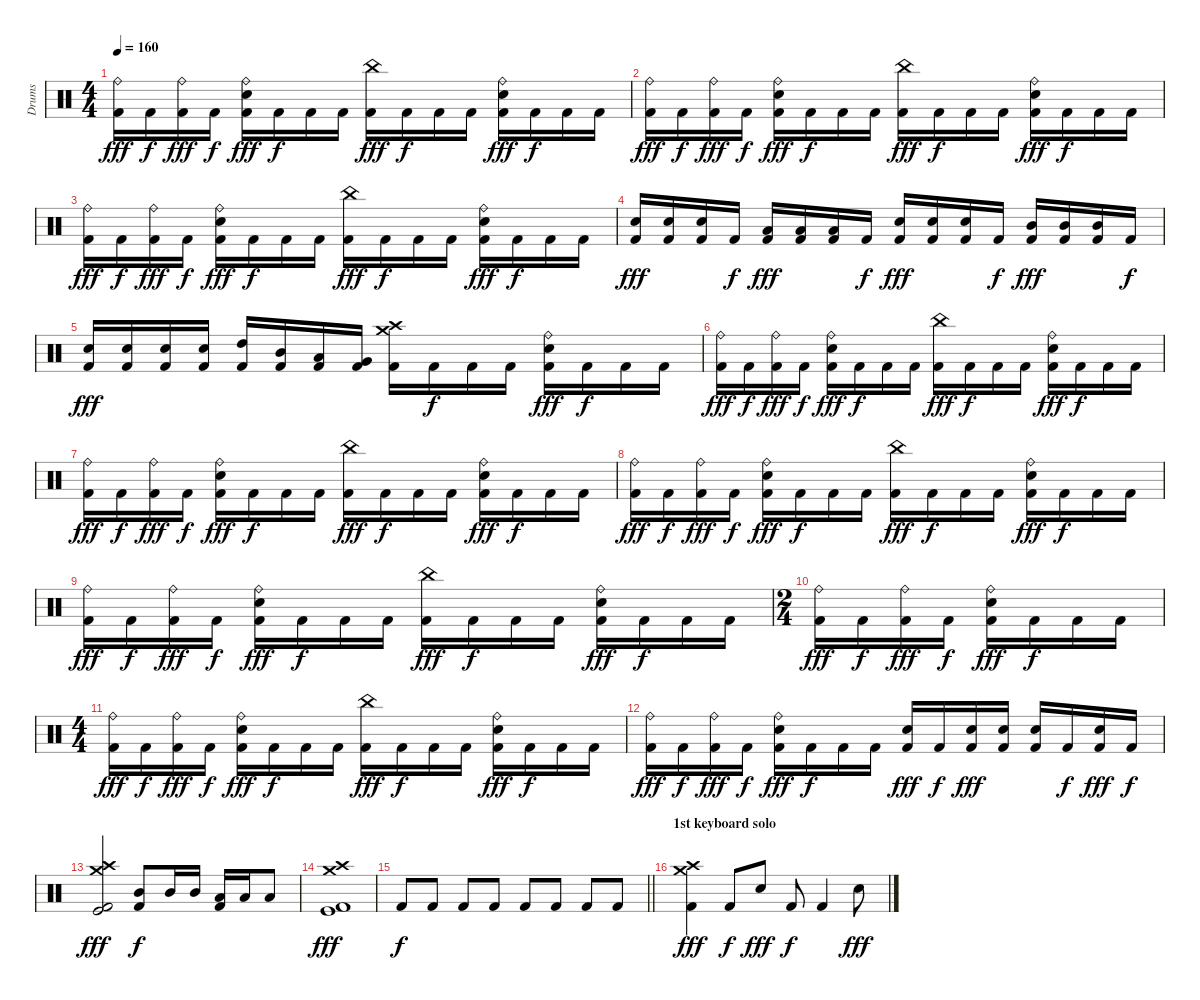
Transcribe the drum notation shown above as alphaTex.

\track ("Drums" "Drums") {instrument percussion}
\staff {score}
\articulation defaults
\ts (4 4)
\tempo 160
\clef neutral
\ks c
("Ride (bell)" "Kick (hit) 2").16{dy fff} "Kick (hit) 2".16{dy f} ("Ride (bell)" "Kick (hit) 2").16{dy fff} "Kick (hit) 2".16{dy f} ("Ride (bell)" "Electric Snare (hit)" "Kick (hit) 2").16{dy fff} "Kick (hit) 2".16{dy f} "Kick (hit) 2".16 "Kick (hit) 2".16 ("China (hit)" "Kick (hit) 2").16{dy fff} "Kick (hit) 2".16{dy f} "Kick (hit) 2".16 "Kick (hit) 2".16 ("Ride (bell)" "Electric Snare (hit)" "Kick (hit) 2").16{dy fff} "Kick (hit) 2".16{dy f} "Kick (hit) 2".16 "Kick (hit) 2".16 |
("Ride (bell)" "Kick (hit) 2").16{dy fff} "Kick (hit) 2".16{dy f} ("Ride (bell)" "Kick (hit) 2").16{dy fff} "Kick (hit) 2".16{dy f} ("Ride (bell)" "Electric Snare (hit)" "Kick (hit) 2").16{dy fff} "Kick (hit) 2".16{dy f} "Kick (hit) 2".16 "Kick (hit) 2".16 ("China (hit)" "Kick (hit) 2").16{dy fff} "Kick (hit) 2".16{dy f} "Kick (hit) 2".16 "Kick (hit) 2".16 ("Ride (bell)" "Electric Snare (hit)" "Kick (hit) 2").16{dy fff} "Kick (hit) 2".16{dy f} "Kick (hit) 2".16 "Kick (hit) 2".16 |
("Ride (bell)" "Kick (hit) 2").16{dy fff} "Kick (hit) 2".16{dy f} ("Ride (bell)" "Kick (hit) 2").16{dy fff} "Kick (hit) 2".16{dy f} ("Ride (bell)" "Electric Snare (hit)" "Kick (hit) 2").16{dy fff} "Kick (hit) 2".16{dy f} "Kick (hit) 2".16 "Kick (hit) 2".16 ("China (hit)" "Kick (hit) 2").16{dy fff} "Kick (hit) 2".16{dy f} "Kick (hit) 2".16 "Kick (hit) 2".16 ("Ride (bell)" "Electric Snare (hit)" "Kick (hit) 2").16{dy fff} "Kick (hit) 2".16{dy f} "Kick (hit) 2".16 "Kick (hit) 2".16 |
("Electric Snare (hit)" "Kick (hit) 2").16{dy fff} ("Electric Snare (hit)" "Kick (hit) 2").16 ("Electric Snare (hit)" "Kick (hit) 2").16 "Kick (hit) 2".16{dy f} ("Low Tom (hit)" "Kick (hit) 2").16{dy fff} ("Low Tom (hit)" "Kick (hit) 2").16 ("Low Tom (hit)" "Kick (hit) 2").16 "Kick (hit) 2".16{dy f} ("Electric Snare (hit)" "Kick (hit) 2").16{dy fff} ("Electric Snare (hit)" "Kick (hit) 2").16 ("Electric Snare (hit)" "Kick (hit) 2").16 "Kick (hit) 2".16{dy f} ("Mid Tom (hit)" "Kick (hit) 2").16{dy fff} ("Mid Tom (hit)" "Kick (hit) 2").16 ("Mid Tom (hit)" "Kick (hit) 2").16 "Kick (hit) 2".16{dy f} |
("Electric Snare (hit)" "Kick (hit) 2").16{dy fff} ("Electric Snare (hit)" "Kick (hit) 2").16 ("Electric Snare (hit)" "Kick (hit) 2").16 ("Electric Snare (hit)" "Kick (hit) 2").16 ("High Tom (hit)" "Kick (hit) 2").16 ("Mid Tom (hit)" "Kick (hit) 2").16 ("Low Tom (hit)" "Kick (hit) 2").16 ("Very Low Tom (hit)" "Kick (hit) 2").16 ("Crash high (hit)" "Crash medium (hit)" "Kick (hit) 2").16 "Kick (hit) 2".16{dy f} "Kick (hit) 2".16 "Kick (hit) 2".16 ("Ride (bell)" "Electric Snare (hit)" "Kick (hit) 2").16{dy fff} "Kick (hit) 2".16{dy f} "Kick (hit) 2".16 "Kick (hit) 2".16 |
("Ride (bell)" "Kick (hit) 2").16{dy fff} "Kick (hit) 2".16{dy f} ("Ride (bell)" "Kick (hit) 2").16{dy fff} "Kick (hit) 2".16{dy f} ("Ride (bell)" "Electric Snare (hit)" "Kick (hit) 2").16{dy fff} "Kick (hit) 2".16{dy f} "Kick (hit) 2".16 "Kick (hit) 2".16 ("China (hit)" "Kick (hit) 2").16{dy fff} "Kick (hit) 2".16{dy f} "Kick (hit) 2".16 "Kick (hit) 2".16 ("Ride (bell)" "Electric Snare (hit)" "Kick (hit) 2").16{dy fff} "Kick (hit) 2".16{dy f} "Kick (hit) 2".16 "Kick (hit) 2".16 |
("Ride (bell)" "Kick (hit) 2").16{dy fff} "Kick (hit) 2".16{dy f} ("Ride (bell)" "Kick (hit) 2").16{dy fff} "Kick (hit) 2".16{dy f} ("Ride (bell)" "Electric Snare (hit)" "Kick (hit) 2").16{dy fff} "Kick (hit) 2".16{dy f} "Kick (hit) 2".16 "Kick (hit) 2".16 ("China (hit)" "Kick (hit) 2").16{dy fff} "Kick (hit) 2".16{dy f} "Kick (hit) 2".16 "Kick (hit) 2".16 ("Ride (bell)" "Electric Snare (hit)" "Kick (hit) 2").16{dy fff} "Kick (hit) 2".16{dy f} "Kick (hit) 2".16 "Kick (hit) 2".16 |
("Ride (bell)" "Kick (hit) 2").16{dy fff} "Kick (hit) 2".16{dy f} ("Ride (bell)" "Kick (hit) 2").16{dy fff} "Kick (hit) 2".16{dy f} ("Ride (bell)" "Electric Snare (hit)" "Kick (hit) 2").16{dy fff} "Kick (hit) 2".16{dy f} "Kick (hit) 2".16 "Kick (hit) 2".16 ("China (hit)" "Kick (hit) 2").16{dy fff} "Kick (hit) 2".16{dy f} "Kick (hit) 2".16 "Kick (hit) 2".16 ("Ride (bell)" "Electric Snare (hit)" "Kick (hit) 2").16{dy fff} "Kick (hit) 2".16{dy f} "Kick (hit) 2".16 "Kick (hit) 2".16 |
("Ride (bell)" "Kick (hit) 2").16{dy fff} "Kick (hit) 2".16{dy f} ("Ride (bell)" "Kick (hit) 2").16{dy fff} "Kick (hit) 2".16{dy f} ("Ride (bell)" "Electric Snare (hit)" "Kick (hit) 2").16{dy fff} "Kick (hit) 2".16{dy f} "Kick (hit) 2".16 "Kick (hit) 2".16 ("China (hit)" "Kick (hit) 2").16{dy fff} "Kick (hit) 2".16{dy f} "Kick (hit) 2".16 "Kick (hit) 2".16 ("Ride (bell)" "Electric Snare (hit)" "Kick (hit) 2").16{dy fff} "Kick (hit) 2".16{dy f} "Kick (hit) 2".16 "Kick (hit) 2".16 |
\ts (2 4)
("Ride (bell)" "Kick (hit) 2").16{dy fff} "Kick (hit) 2".16{dy f} ("Ride (bell)" "Kick (hit) 2").16{dy fff} "Kick (hit) 2".16{dy f} ("Ride (bell)" "Electric Snare (hit)" "Kick (hit) 2").16{dy fff} "Kick (hit) 2".16{dy f} "Kick (hit) 2".16 "Kick (hit) 2".16 |
\ts (4 4)
("Ride (bell)" "Kick (hit) 2").16{dy fff} "Kick (hit) 2".16{dy f} ("Ride (bell)" "Kick (hit) 2").16{dy fff} "Kick (hit) 2".16{dy f} ("Ride (bell)" "Electric Snare (hit)" "Kick (hit) 2").16{dy fff} "Kick (hit) 2".16{dy f} "Kick (hit) 2".16 "Kick (hit) 2".16 ("China (hit)" "Kick (hit) 2").16{dy fff} "Kick (hit) 2".16{dy f} "Kick (hit) 2".16 "Kick (hit) 2".16 ("Ride (bell)" "Electric Snare (hit)" "Kick (hit) 2").16{dy fff} "Kick (hit) 2".16{dy f} "Kick (hit) 2".16 "Kick (hit) 2".16 |
("Ride (bell)" "Kick (hit) 2").16{dy fff} "Kick (hit) 2".16{dy f} ("Ride (bell)" "Kick (hit) 2").16{dy fff} "Kick (hit) 2".16{dy f} ("Ride (bell)" "Electric Snare (hit)" "Kick (hit) 2").16{dy fff} "Kick (hit) 2".16{dy f} "Kick (hit) 2".16 "Kick (hit) 2".16 ("Electric Snare (hit)" "Kick (hit) 2").16{dy fff} "Kick (hit) 2".16{dy f} ("Electric Snare (hit)" "Kick (hit) 2").16{dy fff} ("Electric Snare (hit)" "Kick (hit) 2").16 ("Electric Snare (hit)" "Kick (hit) 2").16 "Kick (hit) 2".16{dy f} ("Electric Snare (hit)" "Kick (hit) 2").16{dy fff} "Kick (hit) 2".16{dy f} |
("Crash high (hit)" "Crash medium (hit)" "Kick (hit)" "Kick (hit) 2").2{dy fff} ("Mid Tom (hit)" "Kick (hit) 2").8{dy f} "Mid Tom (hit)".16 "Mid Tom (hit)".16 ("Low Tom (hit)" "Kick (hit) 2").16 "Low Tom (hit)".16 "Low Tom (hit)".8 |
("Crash high (hit)" "Crash medium (hit)" "Kick (hit)" "Kick (hit) 2").1{dy fff} |
\barLineRight lightlight "Kick (hit) 2".8{dy f} "Kick (hit) 2".8 "Kick (hit) 2".8 "Kick (hit) 2".8 "Kick (hit) 2".8 "Kick (hit) 2".8 "Kick (hit) 2".8 "Kick (hit) 2".8
|
\section ("" "1st keyboard solo")
("Crash high (hit)" "Crash medium (hit)" "Kick (hit) 2").4{dy fff} "Kick (hit) 2".8{dy f} "Electric Snare (hit)".8{dy fff} "Kick (hit) 2".8{dy f} "Kick (hit) 2".4 "Electric Snare (hit)".8{dy fff}
